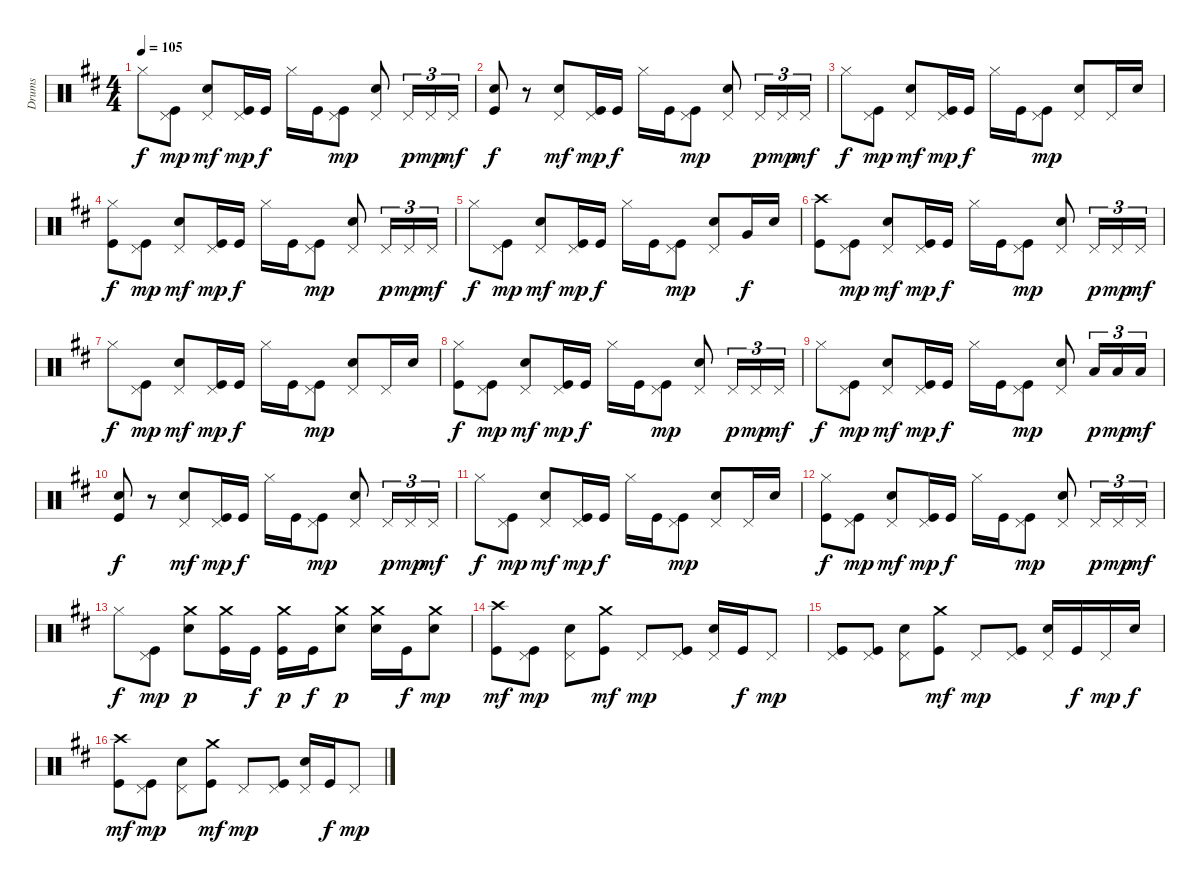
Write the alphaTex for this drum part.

\track ("Drums" "Drums") {instrument percussion}
\staff {score}
\articulation defaults
\ts (4 4)
\tempo 105
\clef neutral
\ks d "Hi-Hat (closed)".8{dy f}
("Pedal Hi-Hat (hit)" "Kick (hit)").8{dy mp} ("Pedal Hi-Hat (hit)" "Snare (hit) 2").8{dy mf} ("Pedal Hi-Hat (hit)" "Kick (hit)").16{dy mp} "Kick (hit)".16{dy f} "Hi-Hat (closed)".16 "Kick (hit)".16 ("Pedal Hi-Hat (hit)" "Kick (hit)").8{dy mp} ("Pedal Hi-Hat (hit)" "Snare (hit) 2").8 "Pedal Hi-Hat (hit)".16{tu (3 2) dy p} "Pedal Hi-Hat (hit)".16{tu (3 2) dy mp} "Pedal Hi-Hat (hit)".16{tu (3 2) dy mf} |
("Snare (hit) 2" "Kick (hit)").8{dy f} r.8 ("Pedal Hi-Hat (hit)" "Snare (hit) 2").8{dy mf} ("Pedal Hi-Hat (hit)" "Kick (hit)").16{dy mp} "Kick (hit)".16{dy f} "Hi-Hat (closed)".16 "Kick (hit)".16 ("Pedal Hi-Hat (hit)" "Kick (hit)").8{dy mp} ("Pedal Hi-Hat (hit)" "Snare (hit) 2").8 "Pedal Hi-Hat (hit)".16{tu (3 2) dy p} "Pedal Hi-Hat (hit)".16{tu (3 2) dy mp} "Pedal Hi-Hat (hit)".16{tu (3 2) dy mf} |
"Hi-Hat (closed)".8{dy f} ("Pedal Hi-Hat (hit)" "Kick (hit)").8{dy mp} ("Pedal Hi-Hat (hit)" "Snare (hit) 2").8{dy mf} ("Pedal Hi-Hat (hit)" "Kick (hit)").16{dy mp} "Kick (hit)".16{dy f} "Hi-Hat (closed)".16 "Kick (hit)".16 ("Pedal Hi-Hat (hit)" "Kick (hit)").8{dy mp} ("Pedal Hi-Hat (hit)" "Snare (hit) 2").8 "Pedal Hi-Hat (hit)".16 "Snare (hit) 2".16 |
("Hi-Hat (closed)" "Kick (hit)").8{dy f} ("Pedal Hi-Hat (hit)" "Kick (hit)").8{dy mp} ("Pedal Hi-Hat (hit)" "Snare (hit) 2").8{dy mf} ("Pedal Hi-Hat (hit)" "Kick (hit)").16{dy mp} "Kick (hit)".16{dy f} "Hi-Hat (closed)".16 "Kick (hit)".16 ("Pedal Hi-Hat (hit)" "Kick (hit)").8{dy mp} ("Pedal Hi-Hat (hit)" "Snare (hit) 2").8 "Pedal Hi-Hat (hit)".16{tu (3 2) dy p} "Pedal Hi-Hat (hit)".16{tu (3 2) dy mp} "Pedal Hi-Hat (hit)".16{tu (3 2) dy mf} |
"Hi-Hat (closed)".8{dy f} ("Pedal Hi-Hat (hit)" "Kick (hit)").8{dy mp} ("Pedal Hi-Hat (hit)" "Snare (hit) 2").8{dy mf} ("Pedal Hi-Hat (hit)" "Kick (hit)").16{dy mp} "Kick (hit)".16{dy f} "Hi-Hat (closed)".16 "Kick (hit)".16 ("Pedal Hi-Hat (hit)" "Kick (hit)").8{dy mp} ("Pedal Hi-Hat (hit)" "Snare (hit) 2").8 "Very Low Tom (hit)".16{dy f} "Snare (hit) 2".16 |
("Crash high (hit)" "Kick (hit)").8 ("Pedal Hi-Hat (hit)" "Kick (hit)").8{dy mp} ("Pedal Hi-Hat (hit)" "Snare (hit) 2").8{dy mf} ("Pedal Hi-Hat (hit)" "Kick (hit)").16{dy mp} "Kick (hit)".16{dy f} "Hi-Hat (closed)".16 "Kick (hit)".16 ("Pedal Hi-Hat (hit)" "Kick (hit)").8{dy mp} ("Pedal Hi-Hat (hit)" "Snare (hit) 2").8 "Pedal Hi-Hat (hit)".16{tu (3 2) dy p} "Pedal Hi-Hat (hit)".16{tu (3 2) dy mp} "Pedal Hi-Hat (hit)".16{tu (3 2) dy mf} |
"Hi-Hat (closed)".8{dy f} ("Pedal Hi-Hat (hit)" "Kick (hit)").8{dy mp} ("Pedal Hi-Hat (hit)" "Snare (hit) 2").8{dy mf} ("Pedal Hi-Hat (hit)" "Kick (hit)").16{dy mp} "Kick (hit)".16{dy f} "Hi-Hat (closed)".16 "Kick (hit)".16 ("Pedal Hi-Hat (hit)" "Kick (hit)").8{dy mp} ("Pedal Hi-Hat (hit)" "Snare (hit) 2").8 "Pedal Hi-Hat (hit)".16 "Snare (hit) 2".16 |
("Hi-Hat (closed)" "Kick (hit)").8{dy f} ("Pedal Hi-Hat (hit)" "Kick (hit)").8{dy mp} ("Pedal Hi-Hat (hit)" "Snare (hit) 2").8{dy mf} ("Pedal Hi-Hat (hit)" "Kick (hit)").16{dy mp} "Kick (hit)".16{dy f} "Hi-Hat (closed)".16 "Kick (hit)".16 ("Pedal Hi-Hat (hit)" "Kick (hit)").8{dy mp} ("Pedal Hi-Hat (hit)" "Snare (hit) 2").8 "Pedal Hi-Hat (hit)".16{tu (3 2) dy p} "Pedal Hi-Hat (hit)".16{tu (3 2) dy mp} "Pedal Hi-Hat (hit)".16{tu (3 2) dy mf} |
"Hi-Hat (closed)".8{dy f} ("Pedal Hi-Hat (hit)" "Kick (hit)").8{dy mp} ("Pedal Hi-Hat (hit)" "Snare (hit) 2").8{dy mf} ("Pedal Hi-Hat (hit)" "Kick (hit)").16{dy mp} "Kick (hit)".16{dy f} "Hi-Hat (closed)".16 "Kick (hit)".16 ("Pedal Hi-Hat (hit)" "Kick (hit)").8{dy mp} ("Pedal Hi-Hat (hit)" "Snare (hit) 2").8 "Low Floor Tom (hit)".16{tu (3 2) dy p} "Low Floor Tom (hit)".16{tu (3 2) dy mp} "Low Floor Tom (hit)".16{tu (3 2) dy mf} |
("Snare (hit) 2" "Kick (hit)").8{dy f} r.8 ("Pedal Hi-Hat (hit)" "Snare (hit) 2").8{dy mf} ("Pedal Hi-Hat (hit)" "Kick (hit)").16{dy mp} "Kick (hit)".16{dy f} "Hi-Hat (closed)".16 "Kick (hit)".16 ("Pedal Hi-Hat (hit)" "Kick (hit)").8{dy mp} ("Pedal Hi-Hat (hit)" "Snare (hit) 2").8 "Pedal Hi-Hat (hit)".16{tu (3 2) dy p} "Pedal Hi-Hat (hit)".16{tu (3 2) dy mp} "Pedal Hi-Hat (hit)".16{tu (3 2) dy mf} |
"Hi-Hat (closed)".8{dy f} ("Pedal Hi-Hat (hit)" "Kick (hit)").8{dy mp} ("Pedal Hi-Hat (hit)" "Snare (hit) 2").8{dy mf} ("Pedal Hi-Hat (hit)" "Kick (hit)").16{dy mp} "Kick (hit)".16{dy f} "Hi-Hat (closed)".16 "Kick (hit)".16 ("Pedal Hi-Hat (hit)" "Kick (hit)").8{dy mp} ("Pedal Hi-Hat (hit)" "Snare (hit) 2").8 "Pedal Hi-Hat (hit)".16 "Snare (hit) 2".16 |
("Hi-Hat (closed)" "Kick (hit)").8{dy f} ("Pedal Hi-Hat (hit)" "Kick (hit)").8{dy mp} ("Pedal Hi-Hat (hit)" "Snare (hit) 2").8{dy mf} ("Pedal Hi-Hat (hit)" "Kick (hit)").16{dy mp} "Kick (hit)".16{dy f} "Hi-Hat (closed)".16 "Kick (hit)".16 ("Pedal Hi-Hat (hit)" "Kick (hit)").8{dy mp} ("Pedal Hi-Hat (hit)" "Snare (hit) 2").8 "Pedal Hi-Hat (hit)".16{tu (3 2) dy p} "Pedal Hi-Hat (hit)".16{tu (3 2) dy mp} "Pedal Hi-Hat (hit)".16{tu (3 2) dy mf} |
"Hi-Hat (closed)".8{dy f} ("Pedal Hi-Hat (hit)" "Kick (hit)").8{dy mp} ("Crash medium (hit)" "Snare (hit) 2").8{dy p} ("Crash medium (hit)" "Kick (hit)").16 "Kick (hit)".16{dy f} ("Crash medium (hit)" "Kick (hit)").16{dy p} "Kick (hit)".16{dy f} ("Crash medium (hit)" "Snare (hit) 2").8{dy p} ("Crash medium (hit)" "Snare (hit) 2").16 "Kick (hit)".16{dy f} ("Crash medium (hit)" "Snare (hit) 2").8{dy mp} |
("Crash high (hit)" "Kick (hit)").8{dy mf} ("Pedal Hi-Hat (hit)" "Kick (hit)").8{dy mp} ("Pedal Hi-Hat (hit)" "Snare (hit) 2").8 ("Crash medium (hit)" "Kick (hit)").8{dy mf} "Pedal Hi-Hat (hit)".8{dy mp} ("Pedal Hi-Hat (hit)" "Kick (hit)").8 ("Pedal Hi-Hat (hit)" "Snare (hit) 2").16 "Kick (hit)".16{dy f} "Pedal Hi-Hat (hit)".8{dy mp} |
("Pedal Hi-Hat (hit)" "Kick (hit)").8 ("Pedal Hi-Hat (hit)" "Kick (hit)").8 ("Pedal Hi-Hat (hit)" "Snare (hit) 2").8 ("Crash medium (hit)" "Kick (hit)").8{dy mf} "Pedal Hi-Hat (hit)".8{dy mp} ("Pedal Hi-Hat (hit)" "Kick (hit)").8 ("Pedal Hi-Hat (hit)" "Snare (hit) 2").16 "Kick (hit)".16{dy f} "Pedal Hi-Hat (hit)".16{dy mp} "Snare (hit) 2".16{dy f} |
("Crash high (hit)" "Kick (hit)").8{dy mf} ("Pedal Hi-Hat (hit)" "Kick (hit)").8{dy mp} ("Pedal Hi-Hat (hit)" "Snare (hit) 2").8 ("Crash medium (hit)" "Kick (hit)").8{dy mf} "Pedal Hi-Hat (hit)".8{dy mp} ("Pedal Hi-Hat (hit)" "Kick (hit)").8 ("Pedal Hi-Hat (hit)" "Snare (hit) 2").16 "Kick (hit)".16{dy f} "Pedal Hi-Hat (hit)".8{dy mp}
